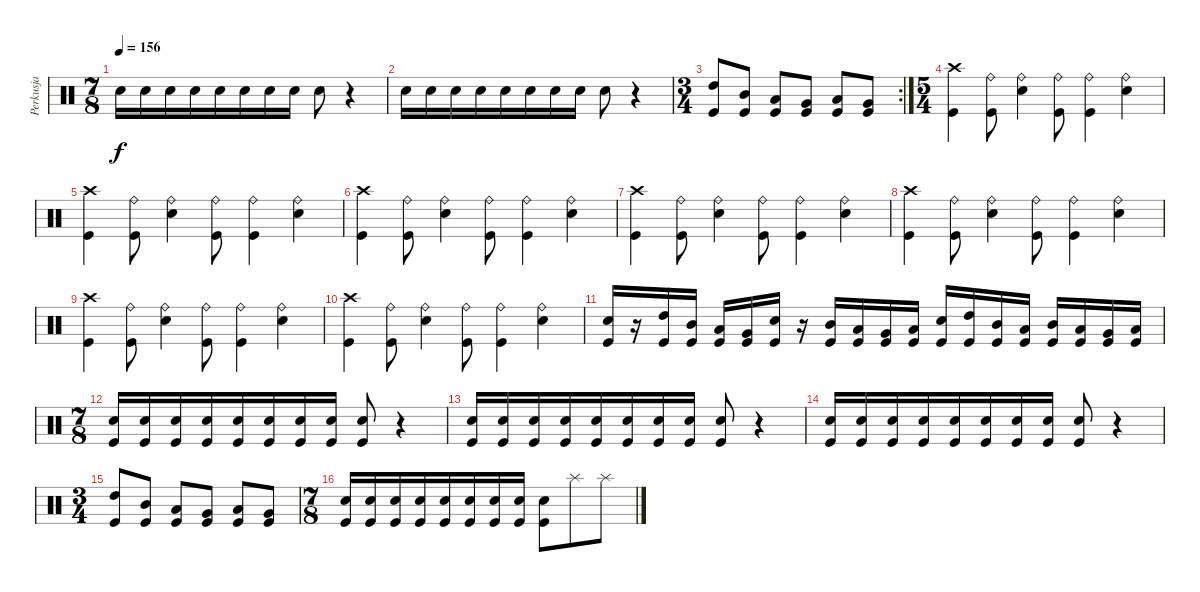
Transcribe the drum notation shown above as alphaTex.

\track ("Perkusja" "Perkusja") {instrument percussion}
\staff {score}
\articulation defaults
\ts (7 8)
\tempo 156
\clef neutral
\ks c "Snare (hit) 2".16{dy f} "Snare (hit) 2".16 "Snare (hit) 2".16 "Snare (hit) 2".16 "Snare (hit) 2".16 "Snare (hit) 2".16 "Snare (hit) 2".16 "Snare (hit) 2".16 "Snare (hit) 2".8
r.4 |
"Snare (hit) 2".16 "Snare (hit) 2".16 "Snare (hit) 2".16 "Snare (hit) 2".16 "Snare (hit) 2".16 "Snare (hit) 2".16 "Snare (hit) 2".16 "Snare (hit) 2".16 "Snare (hit) 2".8 r.4 |
\rc 2
\ts (3 4)
("High Tom (hit)" "Kick (hit)").8 ("Mid Tom (hit)" "Kick (hit)").8 ("Low Tom (hit)" "Kick (hit)").8 ("Very Low Tom (hit)" "Kick (hit)").8 ("Low Tom (hit)" "Kick (hit)").8 ("Very Low Tom (hit)" "Kick (hit)").8 |
\ts (5 4)
("Crash high (hit)" "Kick (hit)").4 ("Ride (bell)" "Kick (hit)").8 ("Ride (bell)" "Snare (hit) 2").4 ("Ride (bell)" "Kick (hit)").8 ("Ride (bell)" "Kick (hit)").4 ("Ride (bell)" "Snare (hit) 2").4 |
("Crash high (hit)" "Kick (hit)").4 ("Ride (bell)" "Kick (hit)").8 ("Ride (bell)" "Snare (hit) 2").4 ("Ride (bell)" "Kick (hit)").8 ("Ride (bell)" "Kick (hit)").4 ("Ride (bell)" "Snare (hit) 2").4 |
("Crash high (hit)" "Kick (hit)").4 ("Ride (bell)" "Kick (hit)").8 ("Ride (bell)" "Snare (hit) 2").4 ("Ride (bell)" "Kick (hit)").8 ("Ride (bell)" "Kick (hit)").4 ("Ride (bell)" "Snare (hit) 2").4 |
("Crash high (hit)" "Kick (hit)").4 ("Ride (bell)" "Kick (hit)").8 ("Ride (bell)" "Snare (hit) 2").4 ("Ride (bell)" "Kick (hit)").8 ("Ride (bell)" "Kick (hit)").4 ("Ride (bell)" "Snare (hit) 2").4 |
("Crash high (hit)" "Kick (hit)").4 ("Ride (bell)" "Kick (hit)").8 ("Ride (bell)" "Snare (hit) 2").4 ("Ride (bell)" "Kick (hit)").8 ("Ride (bell)" "Kick (hit)").4 ("Ride (bell)" "Snare (hit) 2").4 |
("Crash high (hit)" "Kick (hit)").4 ("Ride (bell)" "Kick (hit)").8 ("Ride (bell)" "Snare (hit) 2").4 ("Ride (bell)" "Kick (hit)").8 ("Ride (bell)" "Kick (hit)").4 ("Ride (bell)" "Snare (hit) 2").4 |
("Crash high (hit)" "Kick (hit)").4 ("Ride (bell)" "Kick (hit)").8 ("Ride (bell)" "Snare (hit) 2").4 ("Ride (bell)" "Kick (hit)").8 ("Ride (bell)" "Kick (hit)").4 ("Ride (bell)" "Snare (hit) 2").4 |
("Snare (hit) 2" "Kick (hit)").16 r.16 ("High Tom (hit)" "Kick (hit)").16 ("Mid Tom (hit)" "Kick (hit)").16 ("Low Tom (hit)" "Kick (hit)").16 ("Very Low Tom (hit)" "Kick (hit)").16 ("Snare (hit) 2" "Kick (hit)").16 r.16 ("Mid Tom (hit)" "Kick (hit)").16 ("Low Tom (hit)" "Kick (hit)").16 ("Very Low Tom (hit)" "Kick (hit)").16 ("Low Floor Tom (hit)" "Kick (hit)").16 ("Snare (hit) 2" "Kick (hit)").16 ("High Tom (hit)" "Kick (hit)").16 ("Mid Tom (hit)" "Kick (hit)").16 ("Low Tom (hit)" "Kick (hit)").16 ("Mid Tom (hit)" "Kick (hit)").16 ("Low Tom (hit)" "Kick (hit)").16 ("Very Low Tom (hit)" "Kick (hit)").16 ("Low Floor Tom (hit)" "Kick (hit)").16 |
\ts (7 8)
("Snare (hit) 2" "Kick (hit)").16 ("Snare (hit) 2" "Kick (hit)").16 ("Snare (hit) 2" "Kick (hit)").16 ("Snare (hit) 2" "Kick (hit)").16 ("Snare (hit) 2" "Kick (hit)").16 ("Snare (hit) 2" "Kick (hit)").16 ("Snare (hit) 2" "Kick (hit)").16 ("Snare (hit) 2" "Kick (hit)").16 ("Snare (hit) 2" "Kick (hit)").8 r.4 |
("Snare (hit) 2" "Kick (hit)").16 ("Snare (hit) 2" "Kick (hit)").16 ("Snare (hit) 2" "Kick (hit)").16 ("Snare (hit) 2" "Kick (hit)").16 ("Snare (hit) 2" "Kick (hit)").16 ("Snare (hit) 2" "Kick (hit)").16 ("Snare (hit) 2" "Kick (hit)").16 ("Snare (hit) 2" "Kick (hit)").16 ("Snare (hit) 2" "Kick (hit)").8 r.4 |
("Snare (hit) 2" "Kick (hit)").16 ("Snare (hit) 2" "Kick (hit)").16 ("Snare (hit) 2" "Kick (hit)").16 ("Snare (hit) 2" "Kick (hit)").16 ("Snare (hit) 2" "Kick (hit)").16 ("Snare (hit) 2" "Kick (hit)").16 ("Snare (hit) 2" "Kick (hit)").16 ("Snare (hit) 2" "Kick (hit)").16 ("Snare (hit) 2" "Kick (hit)").8 r.4 |
\ts (3 4)
("High Tom (hit)" "Kick (hit)").8 ("Mid Tom (hit)" "Kick (hit)").8 ("Low Tom (hit)" "Kick (hit)").8 ("Very Low Tom (hit)" "Kick (hit)").8 ("Low Tom (hit)" "Kick (hit)").8 ("Very Low Tom (hit)" "Kick (hit)").8 |
\ts (7 8)
("Snare (hit) 2" "Kick (hit)").16 ("Snare (hit) 2" "Kick (hit)").16 ("Snare (hit) 2" "Kick (hit)").16 ("Snare (hit) 2" "Kick (hit)").16 ("Snare (hit) 2" "Kick (hit)").16 ("Snare (hit) 2" "Kick (hit)").16 ("Snare (hit) 2" "Kick (hit)").16 ("Snare (hit) 2" "Kick (hit)").16 ("Snare (hit) 2" "Kick (hit)").8 "Splash (hit)".8 "Splash (hit)".8
